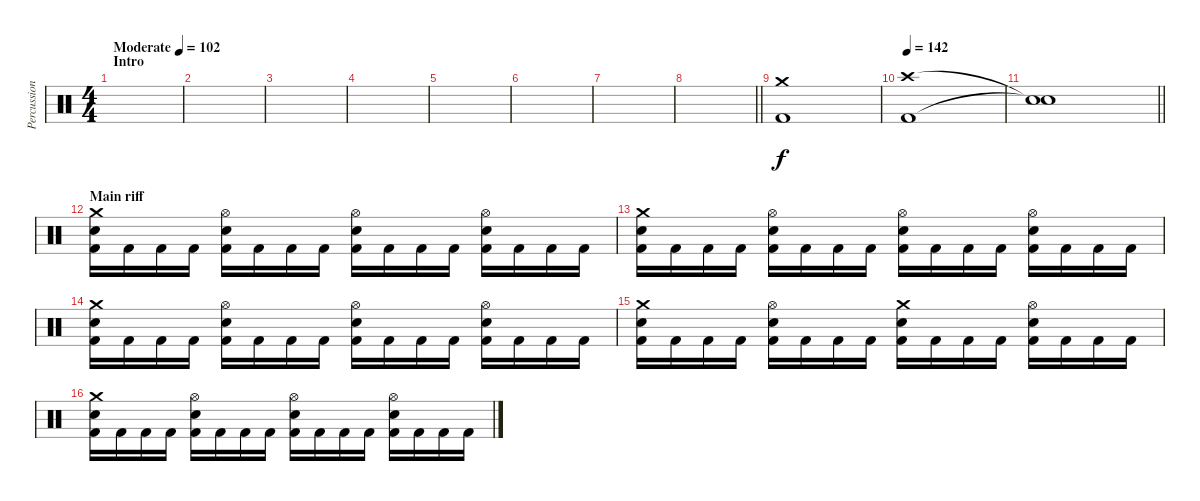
\track ("Percussion" "Percussion") {instrument percussion}
\staff {score}
\articulation defaults
\ts (4 4)
\section ("" "Intro")
\tempo (102 "Moderate")
\clef neutral
\ks c
|
|
|
|
|
|
|
\barLineRight lightlight
|
\section ("" "")
("Crash medium (hit)" "Kick (hit) 2").1 |
\tempo 142
("Crash high (hit)" "Kick (hit) 2").1 |
\barLineRight lightlight
("Snare (hit)"{t} "Snare (hit)"{t}).1 |
\section ("" "Main riff")
("Crash medium (hit)" "Snare (hit) 2" "Kick (hit) 2").16 "Kick (hit) 2".16 "Kick (hit) 2".16 "Kick (hit) 2".16 ("Hi-Hat (open)" "Snare (hit) 2" "Kick (hit) 2").16 "Kick (hit) 2".16 "Kick (hit) 2".16 "Kick (hit) 2".16 ("Hi-Hat (open)" "Snare (hit) 2" "Kick (hit) 2").16 "Kick (hit) 2".16 "Kick (hit) 2".16 "Kick (hit) 2".16 ("Hi-Hat (open)" "Snare (hit) 2" "Kick (hit) 2").16 "Kick (hit) 2".16 "Kick (hit) 2".16 "Kick (hit) 2".16 |
("Crash medium (hit)" "Snare (hit) 2" "Kick (hit) 2").16 "Kick (hit) 2".16 "Kick (hit) 2".16 "Kick (hit) 2".16 ("Hi-Hat (open)" "Snare (hit) 2" "Kick (hit) 2").16 "Kick (hit) 2".16 "Kick (hit) 2".16 "Kick (hit) 2".16 ("Hi-Hat (open)" "Snare (hit) 2" "Kick (hit) 2").16 "Kick (hit) 2".16 "Kick (hit) 2".16 "Kick (hit) 2".16 ("Hi-Hat (open)" "Snare (hit) 2" "Kick (hit) 2").16 "Kick (hit) 2".16 "Kick (hit) 2".16 "Kick (hit) 2".16 |
("Crash medium (hit)" "Snare (hit) 2" "Kick (hit) 2").16 "Kick (hit) 2".16 "Kick (hit) 2".16 "Kick (hit) 2".16 ("Hi-Hat (open)" "Snare (hit) 2" "Kick (hit) 2").16 "Kick (hit) 2".16 "Kick (hit) 2".16 "Kick (hit) 2".16 ("Hi-Hat (open)" "Snare (hit) 2" "Kick (hit) 2").16 "Kick (hit) 2".16 "Kick (hit) 2".16 "Kick (hit) 2".16 ("Hi-Hat (open)" "Snare (hit) 2" "Kick (hit) 2").16 "Kick (hit) 2".16 "Kick (hit) 2".16 "Kick (hit) 2".16 |
("Crash medium (hit)" "Snare (hit) 2" "Kick (hit) 2").16 "Kick (hit) 2".16 "Kick (hit) 2".16 "Kick (hit) 2".16 ("Hi-Hat (open)" "Snare (hit) 2" "Kick (hit) 2").16 "Kick (hit) 2".16 "Kick (hit) 2".16 "Kick (hit) 2".16 ("Crash medium (hit)" "Snare (hit) 2" "Kick (hit) 2").16 "Kick (hit) 2".16 "Kick (hit) 2".16 "Kick (hit) 2".16 ("Hi-Hat (open)" "Snare (hit) 2" "Kick (hit) 2").16 "Kick (hit) 2".16 "Kick (hit) 2".16 "Kick (hit) 2".16 |
("Crash medium (hit)" "Snare (hit) 2" "Kick (hit) 2").16 "Kick (hit) 2".16 "Kick (hit) 2".16 "Kick (hit) 2".16 ("Hi-Hat (open)" "Snare (hit) 2" "Kick (hit) 2").16 "Kick (hit) 2".16 "Kick (hit) 2".16 "Kick (hit) 2".16 ("Hi-Hat (open)" "Snare (hit) 2" "Kick (hit) 2").16 "Kick (hit) 2".16 "Kick (hit) 2".16 "Kick (hit) 2".16 ("Hi-Hat (open)" "Snare (hit) 2" "Kick (hit) 2").16 "Kick (hit) 2".16 "Kick (hit) 2".16 "Kick (hit) 2".16
